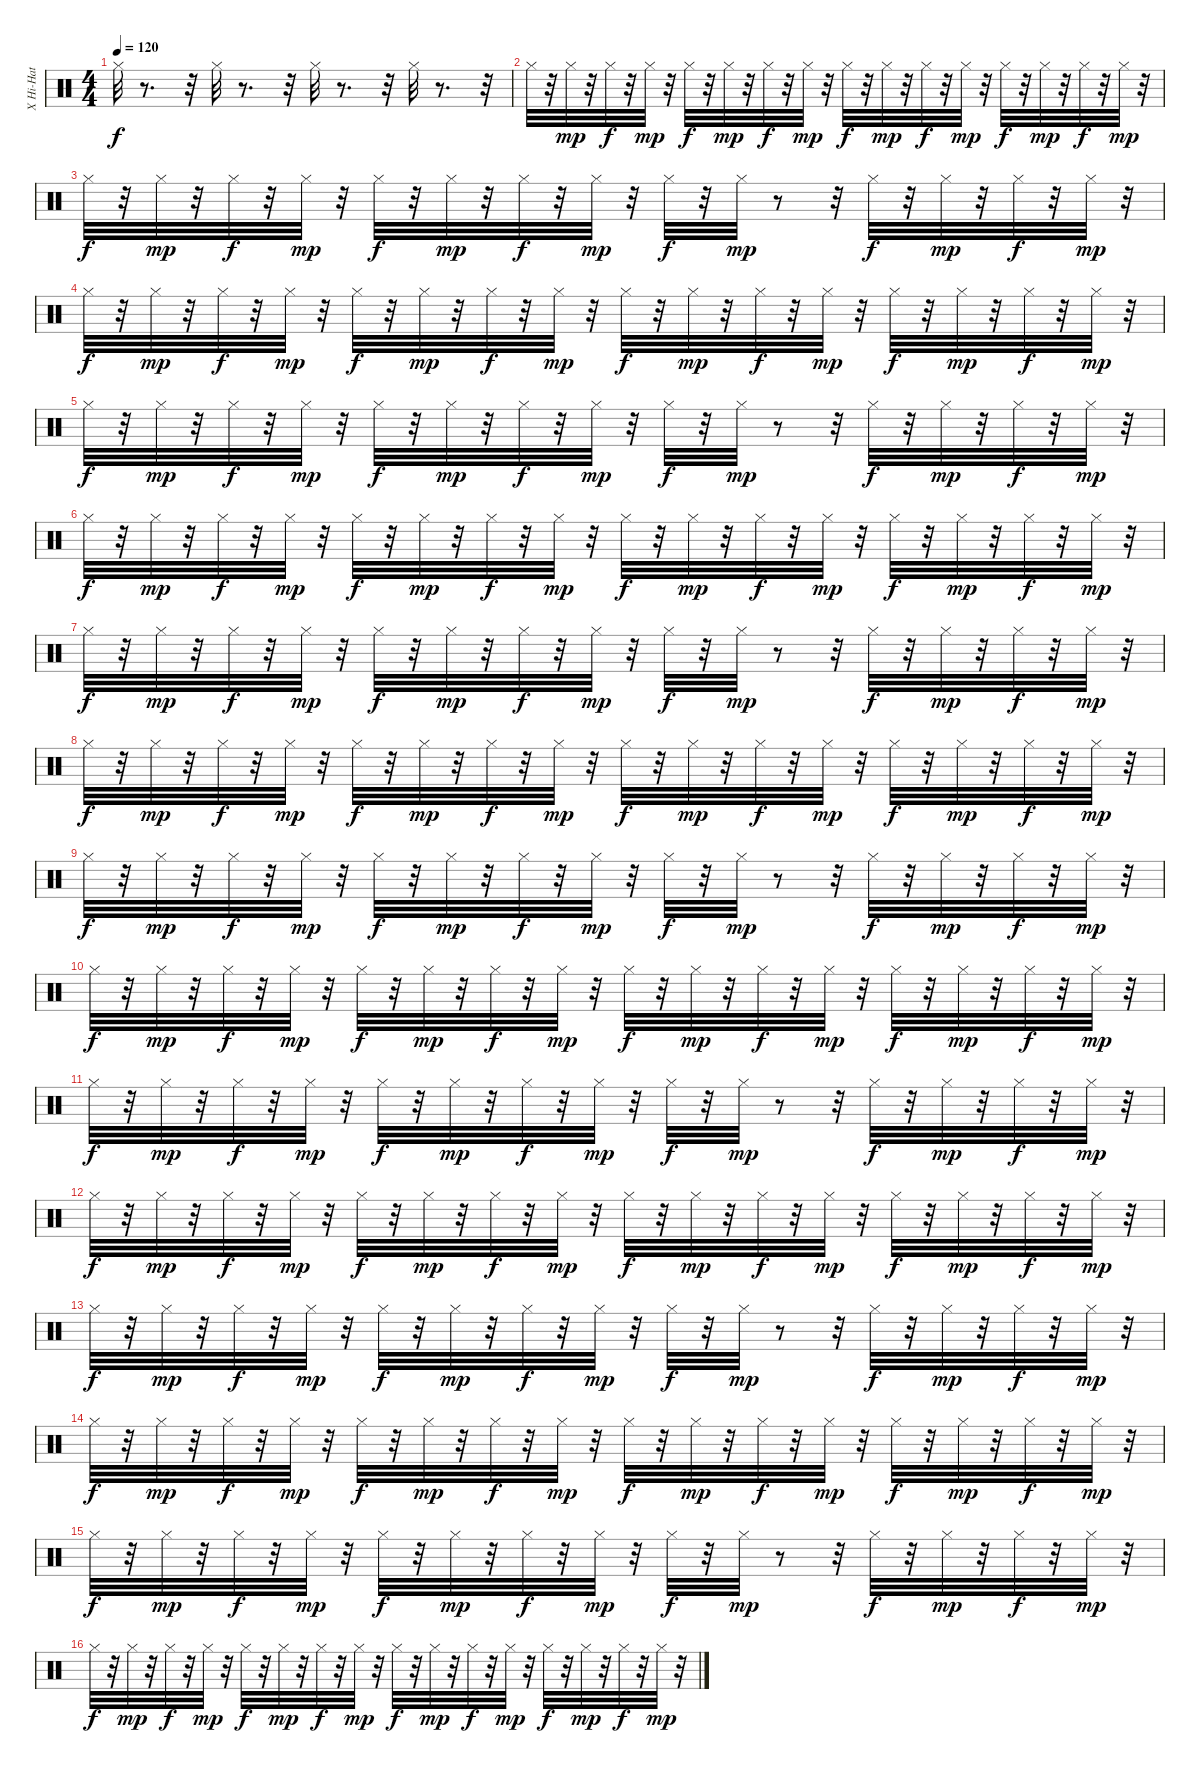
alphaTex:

\track ("X Hi-Hat            " "X Hi-Hat  ") {instrument percussion}
\staff {score}
\articulation defaults
\ts (4 4)
\tempo 120
\clef neutral
\ks c "Hi-Hat (closed)".32{dy f}
r.8{d} r.32 "Hi-Hat (closed)".32 r.8{d} r.32 "Hi-Hat (closed)".32 r.8{d} r.32 "Hi-Hat (closed)".32 r.8{d} r.32 |
"Hi-Hat (closed)".32 r.32 "Hi-Hat (closed)".32{dy mp} r.32 "Hi-Hat (closed)".32{dy f} r.32 "Hi-Hat (closed)".32{dy mp} r.32 "Hi-Hat (closed)".32{dy f} r.32 "Hi-Hat (closed)".32{dy mp} r.32 "Hi-Hat (closed)".32{dy f} r.32 "Hi-Hat (closed)".32{dy mp} r.32 "Hi-Hat (closed)".32{dy f} r.32 "Hi-Hat (closed)".32{dy mp} r.32 "Hi-Hat (closed)".32{dy f} r.32 "Hi-Hat (closed)".32{dy mp} r.32 "Hi-Hat (closed)".32{dy f} r.32 "Hi-Hat (closed)".32{dy mp} r.32 "Hi-Hat (closed)".32{dy f} r.32 "Hi-Hat (closed)".32{dy mp} r.32 |
"Hi-Hat (closed)".32{dy f} r.32 "Hi-Hat (closed)".32{dy mp} r.32 "Hi-Hat (closed)".32{dy f} r.32 "Hi-Hat (closed)".32{dy mp} r.32 "Hi-Hat (closed)".32{dy f} r.32 "Hi-Hat (closed)".32{dy mp} r.32 "Hi-Hat (closed)".32{dy f} r.32 "Hi-Hat (closed)".32{dy mp} r.32 "Hi-Hat (closed)".32{dy f} r.32 "Hi-Hat (closed)".32{dy mp} r.8 r.32 "Hi-Hat (closed)".32{dy f} r.32 "Hi-Hat (closed)".32{dy mp} r.32 "Hi-Hat (closed)".32{dy f} r.32 "Hi-Hat (closed)".32{dy mp} r.32 |
"Hi-Hat (closed)".32{dy f} r.32 "Hi-Hat (closed)".32{dy mp} r.32 "Hi-Hat (closed)".32{dy f} r.32 "Hi-Hat (closed)".32{dy mp} r.32 "Hi-Hat (closed)".32{dy f} r.32 "Hi-Hat (closed)".32{dy mp} r.32 "Hi-Hat (closed)".32{dy f} r.32 "Hi-Hat (closed)".32{dy mp} r.32 "Hi-Hat (closed)".32{dy f} r.32 "Hi-Hat (closed)".32{dy mp} r.32 "Hi-Hat (closed)".32{dy f} r.32 "Hi-Hat (closed)".32{dy mp} r.32 "Hi-Hat (closed)".32{dy f} r.32 "Hi-Hat (closed)".32{dy mp} r.32 "Hi-Hat (closed)".32{dy f} r.32 "Hi-Hat (closed)".32{dy mp} r.32 |
"Hi-Hat (closed)".32{dy f} r.32 "Hi-Hat (closed)".32{dy mp} r.32 "Hi-Hat (closed)".32{dy f} r.32 "Hi-Hat (closed)".32{dy mp} r.32 "Hi-Hat (closed)".32{dy f} r.32 "Hi-Hat (closed)".32{dy mp} r.32 "Hi-Hat (closed)".32{dy f} r.32 "Hi-Hat (closed)".32{dy mp} r.32 "Hi-Hat (closed)".32{dy f} r.32 "Hi-Hat (closed)".32{dy mp} r.8 r.32 "Hi-Hat (closed)".32{dy f} r.32 "Hi-Hat (closed)".32{dy mp} r.32 "Hi-Hat (closed)".32{dy f} r.32 "Hi-Hat (closed)".32{dy mp} r.32 |
"Hi-Hat (closed)".32{dy f} r.32 "Hi-Hat (closed)".32{dy mp} r.32 "Hi-Hat (closed)".32{dy f} r.32 "Hi-Hat (closed)".32{dy mp} r.32 "Hi-Hat (closed)".32{dy f} r.32 "Hi-Hat (closed)".32{dy mp} r.32 "Hi-Hat (closed)".32{dy f} r.32 "Hi-Hat (closed)".32{dy mp} r.32 "Hi-Hat (closed)".32{dy f} r.32 "Hi-Hat (closed)".32{dy mp} r.32 "Hi-Hat (closed)".32{dy f} r.32 "Hi-Hat (closed)".32{dy mp} r.32 "Hi-Hat (closed)".32{dy f} r.32 "Hi-Hat (closed)".32{dy mp} r.32 "Hi-Hat (closed)".32{dy f} r.32 "Hi-Hat (closed)".32{dy mp} r.32 |
"Hi-Hat (closed)".32{dy f} r.32 "Hi-Hat (closed)".32{dy mp} r.32 "Hi-Hat (closed)".32{dy f} r.32 "Hi-Hat (closed)".32{dy mp} r.32 "Hi-Hat (closed)".32{dy f} r.32 "Hi-Hat (closed)".32{dy mp} r.32 "Hi-Hat (closed)".32{dy f} r.32 "Hi-Hat (closed)".32{dy mp} r.32 "Hi-Hat (closed)".32{dy f} r.32 "Hi-Hat (closed)".32{dy mp} r.8 r.32 "Hi-Hat (closed)".32{dy f} r.32 "Hi-Hat (closed)".32{dy mp} r.32 "Hi-Hat (closed)".32{dy f} r.32 "Hi-Hat (closed)".32{dy mp} r.32 |
"Hi-Hat (closed)".32{dy f} r.32 "Hi-Hat (closed)".32{dy mp} r.32 "Hi-Hat (closed)".32{dy f} r.32 "Hi-Hat (closed)".32{dy mp} r.32 "Hi-Hat (closed)".32{dy f} r.32 "Hi-Hat (closed)".32{dy mp} r.32 "Hi-Hat (closed)".32{dy f} r.32 "Hi-Hat (closed)".32{dy mp} r.32 "Hi-Hat (closed)".32{dy f} r.32 "Hi-Hat (closed)".32{dy mp} r.32 "Hi-Hat (closed)".32{dy f} r.32 "Hi-Hat (closed)".32{dy mp} r.32 "Hi-Hat (closed)".32{dy f} r.32 "Hi-Hat (closed)".32{dy mp} r.32 "Hi-Hat (closed)".32{dy f} r.32 "Hi-Hat (closed)".32{dy mp} r.32 |
"Hi-Hat (closed)".32{dy f} r.32 "Hi-Hat (closed)".32{dy mp} r.32 "Hi-Hat (closed)".32{dy f} r.32 "Hi-Hat (closed)".32{dy mp} r.32 "Hi-Hat (closed)".32{dy f} r.32 "Hi-Hat (closed)".32{dy mp} r.32 "Hi-Hat (closed)".32{dy f} r.32 "Hi-Hat (closed)".32{dy mp} r.32 "Hi-Hat (closed)".32{dy f} r.32 "Hi-Hat (closed)".32{dy mp} r.8 r.32 "Hi-Hat (closed)".32{dy f} r.32 "Hi-Hat (closed)".32{dy mp} r.32 "Hi-Hat (closed)".32{dy f} r.32 "Hi-Hat (closed)".32{dy mp} r.32 |
"Hi-Hat (closed)".32{dy f} r.32 "Hi-Hat (closed)".32{dy mp} r.32 "Hi-Hat (closed)".32{dy f} r.32 "Hi-Hat (closed)".32{dy mp} r.32 "Hi-Hat (closed)".32{dy f} r.32 "Hi-Hat (closed)".32{dy mp} r.32 "Hi-Hat (closed)".32{dy f} r.32 "Hi-Hat (closed)".32{dy mp} r.32 "Hi-Hat (closed)".32{dy f} r.32 "Hi-Hat (closed)".32{dy mp} r.32 "Hi-Hat (closed)".32{dy f} r.32 "Hi-Hat (closed)".32{dy mp} r.32 "Hi-Hat (closed)".32{dy f} r.32 "Hi-Hat (closed)".32{dy mp} r.32 "Hi-Hat (closed)".32{dy f} r.32 "Hi-Hat (closed)".32{dy mp} r.32 |
"Hi-Hat (closed)".32{dy f} r.32 "Hi-Hat (closed)".32{dy mp} r.32 "Hi-Hat (closed)".32{dy f} r.32 "Hi-Hat (closed)".32{dy mp} r.32 "Hi-Hat (closed)".32{dy f} r.32 "Hi-Hat (closed)".32{dy mp} r.32 "Hi-Hat (closed)".32{dy f} r.32 "Hi-Hat (closed)".32{dy mp} r.32 "Hi-Hat (closed)".32{dy f} r.32 "Hi-Hat (closed)".32{dy mp} r.8 r.32 "Hi-Hat (closed)".32{dy f} r.32 "Hi-Hat (closed)".32{dy mp} r.32 "Hi-Hat (closed)".32{dy f} r.32 "Hi-Hat (closed)".32{dy mp} r.32 |
"Hi-Hat (closed)".32{dy f} r.32 "Hi-Hat (closed)".32{dy mp} r.32 "Hi-Hat (closed)".32{dy f} r.32 "Hi-Hat (closed)".32{dy mp} r.32 "Hi-Hat (closed)".32{dy f} r.32 "Hi-Hat (closed)".32{dy mp} r.32 "Hi-Hat (closed)".32{dy f} r.32 "Hi-Hat (closed)".32{dy mp} r.32 "Hi-Hat (closed)".32{dy f} r.32 "Hi-Hat (closed)".32{dy mp} r.32 "Hi-Hat (closed)".32{dy f} r.32 "Hi-Hat (closed)".32{dy mp} r.32 "Hi-Hat (closed)".32{dy f} r.32 "Hi-Hat (closed)".32{dy mp} r.32 "Hi-Hat (closed)".32{dy f} r.32 "Hi-Hat (closed)".32{dy mp} r.32 |
"Hi-Hat (closed)".32{dy f} r.32 "Hi-Hat (closed)".32{dy mp} r.32 "Hi-Hat (closed)".32{dy f} r.32 "Hi-Hat (closed)".32{dy mp} r.32 "Hi-Hat (closed)".32{dy f} r.32 "Hi-Hat (closed)".32{dy mp} r.32 "Hi-Hat (closed)".32{dy f} r.32 "Hi-Hat (closed)".32{dy mp} r.32 "Hi-Hat (closed)".32{dy f} r.32 "Hi-Hat (closed)".32{dy mp} r.8 r.32 "Hi-Hat (closed)".32{dy f} r.32 "Hi-Hat (closed)".32{dy mp} r.32 "Hi-Hat (closed)".32{dy f} r.32 "Hi-Hat (closed)".32{dy mp} r.32 |
"Hi-Hat (closed)".32{dy f} r.32 "Hi-Hat (closed)".32{dy mp} r.32 "Hi-Hat (closed)".32{dy f} r.32 "Hi-Hat (closed)".32{dy mp} r.32 "Hi-Hat (closed)".32{dy f} r.32 "Hi-Hat (closed)".32{dy mp} r.32 "Hi-Hat (closed)".32{dy f} r.32 "Hi-Hat (closed)".32{dy mp} r.32 "Hi-Hat (closed)".32{dy f} r.32 "Hi-Hat (closed)".32{dy mp} r.32 "Hi-Hat (closed)".32{dy f} r.32 "Hi-Hat (closed)".32{dy mp} r.32 "Hi-Hat (closed)".32{dy f} r.32 "Hi-Hat (closed)".32{dy mp} r.32 "Hi-Hat (closed)".32{dy f} r.32 "Hi-Hat (closed)".32{dy mp} r.32 |
"Hi-Hat (closed)".32{dy f} r.32 "Hi-Hat (closed)".32{dy mp} r.32 "Hi-Hat (closed)".32{dy f} r.32 "Hi-Hat (closed)".32{dy mp} r.32 "Hi-Hat (closed)".32{dy f} r.32 "Hi-Hat (closed)".32{dy mp} r.32 "Hi-Hat (closed)".32{dy f} r.32 "Hi-Hat (closed)".32{dy mp} r.32 "Hi-Hat (closed)".32{dy f} r.32 "Hi-Hat (closed)".32{dy mp} r.8 r.32 "Hi-Hat (closed)".32{dy f} r.32 "Hi-Hat (closed)".32{dy mp} r.32 "Hi-Hat (closed)".32{dy f} r.32 "Hi-Hat (closed)".32{dy mp} r.32 |
"Hi-Hat (closed)".32{dy f} r.32 "Hi-Hat (closed)".32{dy mp} r.32 "Hi-Hat (closed)".32{dy f} r.32 "Hi-Hat (closed)".32{dy mp} r.32 "Hi-Hat (closed)".32{dy f} r.32 "Hi-Hat (closed)".32{dy mp} r.32 "Hi-Hat (closed)".32{dy f} r.32 "Hi-Hat (closed)".32{dy mp} r.32 "Hi-Hat (closed)".32{dy f} r.32 "Hi-Hat (closed)".32{dy mp} r.32 "Hi-Hat (closed)".32{dy f} r.32 "Hi-Hat (closed)".32{dy mp} r.32 "Hi-Hat (closed)".32{dy f} r.32 "Hi-Hat (closed)".32{dy mp} r.32 "Hi-Hat (closed)".32{dy f} r.32 "Hi-Hat (closed)".32{dy mp} r.32
